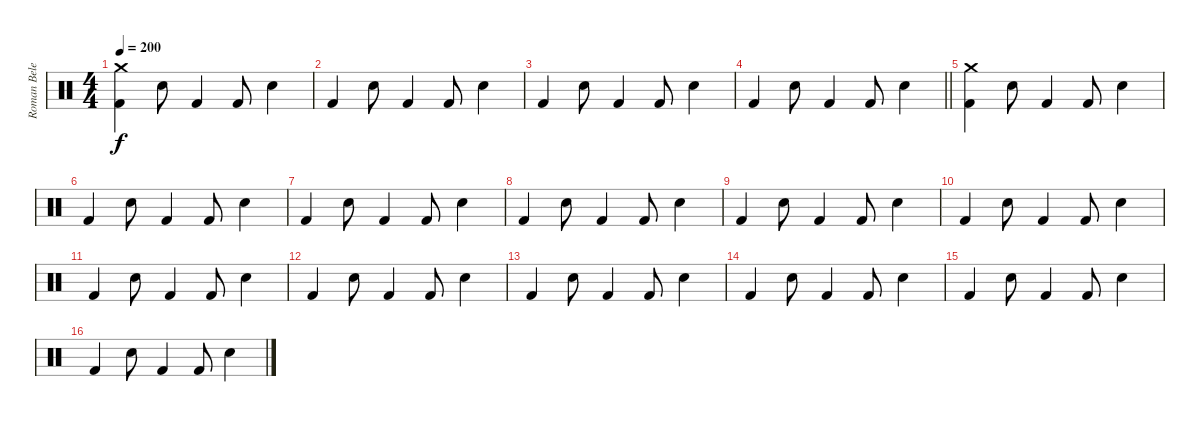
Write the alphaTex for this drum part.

\track ("Roman Belenkiy" "Roman Bele") {instrument percussion}
\staff {score}
\articulation defaults
\ts (4 4)
\tempo 200
\clef neutral
\ks c
("Crash medium (hit)" "Kick (hit) 2").4{dy f} "Snare (hit) 2".8 "Kick (hit) 2".4 "Kick (hit) 2".8 "Snare (hit) 2".4 |
"Kick (hit) 2".4 "Snare (hit) 2".8 "Kick (hit) 2".4 "Kick (hit) 2".8 "Snare (hit) 2".4 |
"Kick (hit) 2".4 "Snare (hit) 2".8 "Kick (hit) 2".4 "Kick (hit) 2".8 "Snare (hit) 2".4 |
\barLineRight lightlight "Kick (hit) 2".4 "Snare (hit) 2".8 "Kick (hit) 2".4 "Kick (hit) 2".8 "Snare (hit) 2".4
|
\section ("" "")
("Crash medium (hit)" "Kick (hit) 2").4 "Snare (hit) 2".8 "Kick (hit) 2".4 "Kick (hit) 2".8 "Snare (hit) 2".4 |
"Kick (hit) 2".4 "Snare (hit) 2".8 "Kick (hit) 2".4 "Kick (hit) 2".8 "Snare (hit) 2".4 |
"Kick (hit) 2".4 "Snare (hit) 2".8 "Kick (hit) 2".4 "Kick (hit) 2".8 "Snare (hit) 2".4 |
"Kick (hit) 2".4 "Snare (hit) 2".8 "Kick (hit) 2".4 "Kick (hit) 2".8 "Snare (hit) 2".4 |
"Kick (hit) 2".4 "Snare (hit) 2".8 "Kick (hit) 2".4 "Kick (hit) 2".8 "Snare (hit) 2".4 |
"Kick (hit) 2".4 "Snare (hit) 2".8 "Kick (hit) 2".4 "Kick (hit) 2".8 "Snare (hit) 2".4 |
"Kick (hit) 2".4 "Snare (hit) 2".8 "Kick (hit) 2".4 "Kick (hit) 2".8 "Snare (hit) 2".4 |
"Kick (hit) 2".4 "Snare (hit) 2".8 "Kick (hit) 2".4 "Kick (hit) 2".8 "Snare (hit) 2".4 |
"Kick (hit) 2".4 "Snare (hit) 2".8 "Kick (hit) 2".4 "Kick (hit) 2".8 "Snare (hit) 2".4 |
"Kick (hit) 2".4 "Snare (hit) 2".8 "Kick (hit) 2".4 "Kick (hit) 2".8 "Snare (hit) 2".4 |
"Kick (hit) 2".4 "Snare (hit) 2".8 "Kick (hit) 2".4 "Kick (hit) 2".8 "Snare (hit) 2".4 |
"Kick (hit) 2".4 "Snare (hit) 2".8 "Kick (hit) 2".4 "Kick (hit) 2".8 "Snare (hit) 2".4
